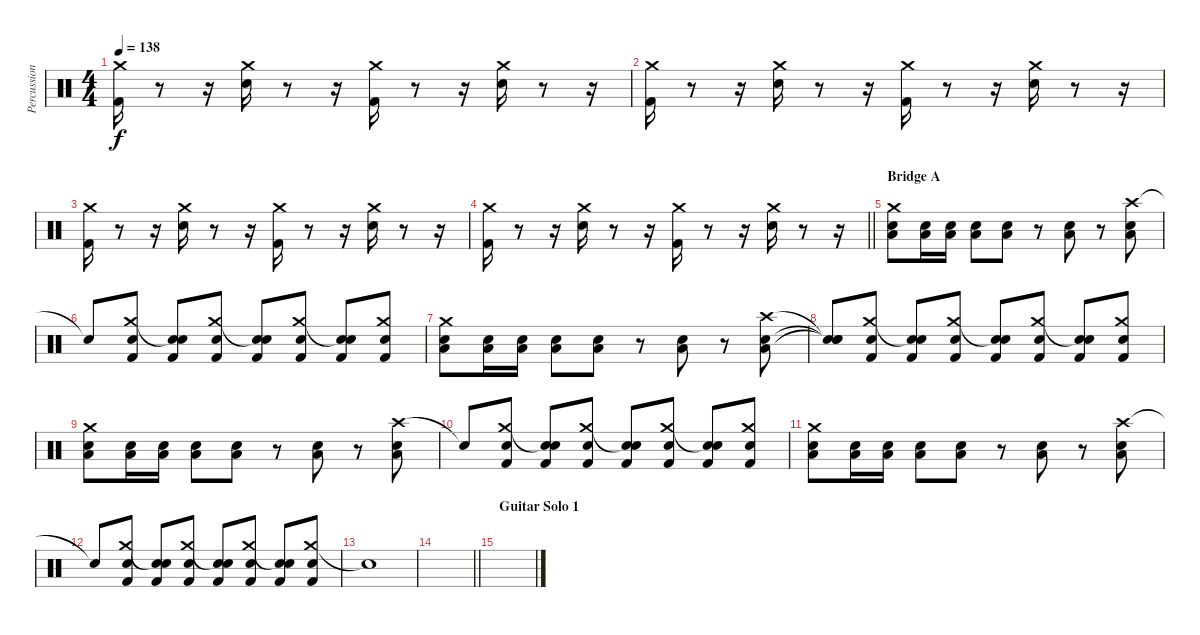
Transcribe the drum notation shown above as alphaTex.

\track ("Percussion" "Percussion") {instrument percussion}
\staff {score}
\articulation defaults
\ts (4 4)
\tempo 138
\clef neutral
\ks c
("Kick (hit) 2" "Crash medium (hit)").16{dy f} r.8 r.16 ("Snare (hit) 2" "Crash medium (hit)").16 r.8 r.16 ("Kick (hit) 2" "Crash medium (hit)").16 r.8 r.16 ("Snare (hit) 2" "Crash medium (hit)").16 r.8 r.16 |
("Kick (hit) 2" "Crash medium (hit)").16 r.8 r.16 ("Snare (hit) 2" "Crash medium (hit)").16 r.8 r.16 ("Kick (hit) 2" "Crash medium (hit)").16 r.8 r.16 ("Snare (hit) 2" "Crash medium (hit)").16 r.8 r.16 |
("Kick (hit) 2" "Crash medium (hit)").16 r.8 r.16 ("Snare (hit) 2" "Crash medium (hit)").16 r.8 r.16 ("Kick (hit) 2" "Crash medium (hit)").16 r.8 r.16 ("Snare (hit) 2" "Crash medium (hit)").16 r.8 r.16 |
\barLineRight lightlight
("Kick (hit) 2" "Crash medium (hit)").16 r.8 r.16 ("Snare (hit) 2" "Crash medium (hit)").16 r.8 r.16 ("Kick (hit) 2" "Crash medium (hit)").16 r.8 r.16 ("Snare (hit) 2" "Crash medium (hit)").16 r.8 r.16 |
\section ("" "Bridge A")
("Crash medium (hit)" "Electric Snare (hit)" "Low Tom (hit)").8 ("Low Tom (hit)" "Electric Snare (hit)").16 ("Low Tom (hit)" "Electric Snare (hit)").16 ("Low Tom (hit)" "Electric Snare (hit)").8 ("Low Tom (hit)" "Electric Snare (hit)").8 r.8 ("Low Tom (hit)" "Electric Snare (hit)").8 r.8 ("Crash high (hit)" "Low Tom (hit)" "Electric Snare (hit)").8 |
"Snare (hit)"{t}.8 ("Crash medium (hit)" "Electric Snare (hit)" "Kick (hit) 2").8 ("Snare (hit)"{t} "Electric Snare (hit)" "Kick (hit) 2").8 ("Crash medium (hit)" "Electric Snare (hit)" "Kick (hit) 2").8 ("Snare (hit)"{t} "Electric Snare (hit)" "Kick (hit) 2").8 ("Crash medium (hit)" "Electric Snare (hit)" "Kick (hit) 2").8 ("Snare (hit)"{t} "Electric Snare (hit)" "Kick (hit) 2").8 ("Crash medium (hit)" "Electric Snare (hit)" "Kick (hit) 2").8 |
("Crash medium (hit)" "Electric Snare (hit)" "Low Tom (hit)").8 ("Low Tom (hit)" "Electric Snare (hit)").16 ("Low Tom (hit)" "Electric Snare (hit)").16 ("Low Tom (hit)" "Electric Snare (hit)").8 ("Low Tom (hit)" "Electric Snare (hit)").8 r.8 ("Low Tom (hit)" "Electric Snare (hit)").8 r.8 ("Crash high (hit)" "Low Tom (hit)" "Electric Snare (hit)").8 |
("Snare (hit)"{t} "Snare (hit)"{t} "Snare (hit)"{t}).8 ("Crash medium (hit)" "Electric Snare (hit)" "Kick (hit) 2").8 ("Snare (hit)"{t} "Electric Snare (hit)" "Kick (hit) 2").8 ("Crash medium (hit)" "Electric Snare (hit)" "Kick (hit) 2").8 ("Snare (hit)"{t} "Electric Snare (hit)" "Kick (hit) 2").8 ("Crash medium (hit)" "Electric Snare (hit)" "Kick (hit) 2").8 ("Snare (hit)"{t} "Electric Snare (hit)" "Kick (hit) 2").8 ("Crash medium (hit)" "Electric Snare (hit)" "Kick (hit) 2").8 |
("Crash medium (hit)" "Electric Snare (hit)" "Low Tom (hit)").8 ("Low Tom (hit)" "Electric Snare (hit)").16 ("Low Tom (hit)" "Electric Snare (hit)").16 ("Low Tom (hit)" "Electric Snare (hit)").8 ("Low Tom (hit)" "Electric Snare (hit)").8 r.8 ("Low Tom (hit)" "Electric Snare (hit)").8 r.8 ("Crash high (hit)" "Low Tom (hit)" "Electric Snare (hit)").8 |
"Snare (hit)"{t}.8 ("Crash medium (hit)" "Electric Snare (hit)" "Kick (hit) 2").8 ("Snare (hit)"{t} "Electric Snare (hit)" "Kick (hit) 2").8 ("Crash medium (hit)" "Electric Snare (hit)" "Kick (hit) 2").8 ("Snare (hit)"{t} "Electric Snare (hit)" "Kick (hit) 2").8 ("Crash medium (hit)" "Electric Snare (hit)" "Kick (hit) 2").8 ("Snare (hit)"{t} "Electric Snare (hit)" "Kick (hit) 2").8 ("Crash medium (hit)" "Electric Snare (hit)" "Kick (hit) 2").8 |
("Crash medium (hit)" "Electric Snare (hit)" "Low Tom (hit)").8 ("Low Tom (hit)" "Electric Snare (hit)").16 ("Low Tom (hit)" "Electric Snare (hit)").16 ("Low Tom (hit)" "Electric Snare (hit)").8 ("Low Tom (hit)" "Electric Snare (hit)").8 r.8 ("Low Tom (hit)" "Electric Snare (hit)").8 r.8 ("Crash high (hit)" "Low Tom (hit)" "Electric Snare (hit)").8 |
"Snare (hit)"{t}.8 ("Crash medium (hit)" "Electric Snare (hit)" "Kick (hit) 2").8 ("Snare (hit)"{t} "Electric Snare (hit)" "Kick (hit) 2").8 ("Crash medium (hit)" "Electric Snare (hit)" "Kick (hit) 2").8 ("Snare (hit)"{t} "Electric Snare (hit)" "Kick (hit) 2").8 ("Crash medium (hit)" "Electric Snare (hit)" "Kick (hit) 2").8 ("Snare (hit)"{t} "Electric Snare (hit)" "Kick (hit) 2").8 ("Crash medium (hit)" "Electric Snare (hit)" "Kick (hit) 2").8 |
"Snare (hit)"{t}.1 |
\barLineRight lightlight
|
\section ("" "Guitar Solo 1")
